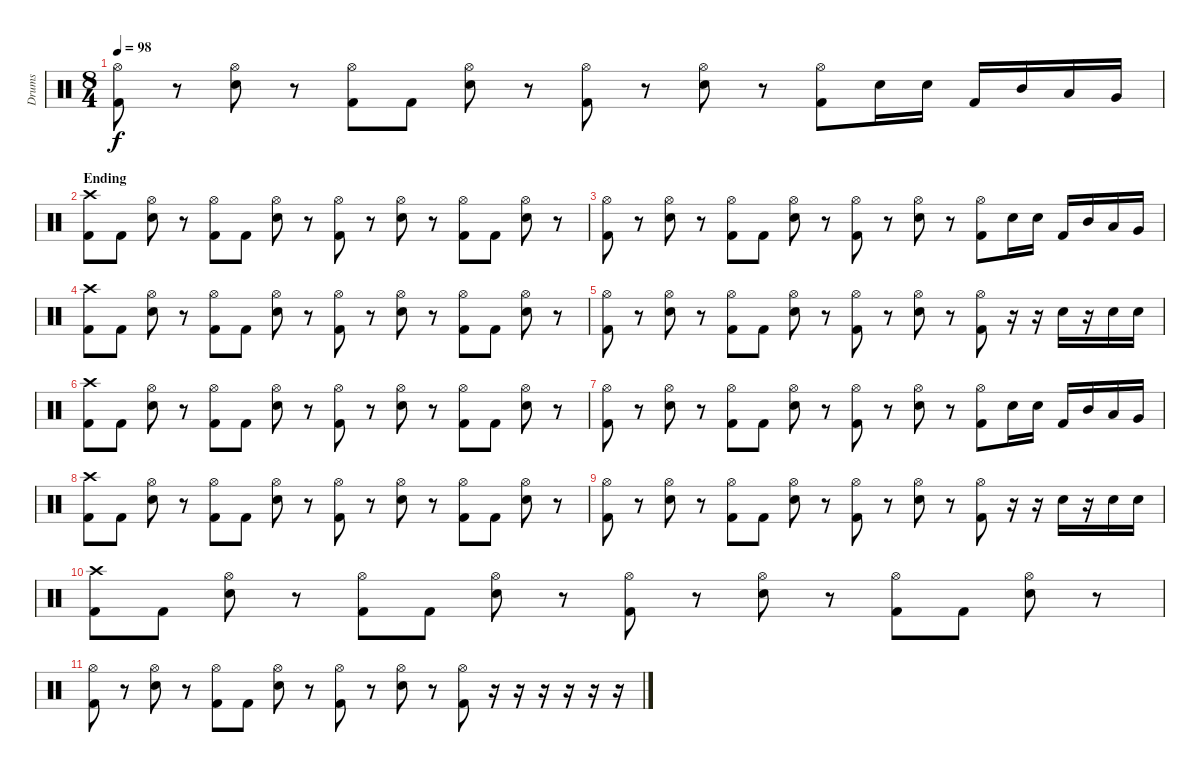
\track ("Drums" "Drums") {instrument percussion}
\staff {score}
\articulation defaults
\ts (8 4)
\tempo 98
\clef neutral
\ks c
("Hi-Hat (open)" "Kick (hit) 2").8{dy f} r.8 ("Hi-Hat (open)" "Electric Snare (hit)").8 r.8 ("Hi-Hat (open)" "Kick (hit) 2").8 "Kick (hit) 2".8 ("Hi-Hat (open)" "Electric Snare (hit)").8 r.8 ("Hi-Hat (open)" "Kick (hit) 2").8 r.8 ("Hi-Hat (open)" "Electric Snare (hit)").8 r.8 ("Hi-Hat (open)" "Kick (hit) 2").8 "Electric Snare (hit)".16 "Electric Snare (hit)".16 "Kick (hit) 2".16 "Mid Tom (hit)".16 "Low Tom (hit)".16 "Very Low Tom (hit)".16 |
\section ("" "Ending")
("Crash high (hit)" "Kick (hit) 2").8 "Kick (hit) 2".8 ("Hi-Hat (open)" "Electric Snare (hit)").8 r.8 ("Hi-Hat (open)" "Kick (hit) 2").8 "Kick (hit) 2".8 ("Hi-Hat (open)" "Electric Snare (hit)").8 r.8 ("Hi-Hat (open)" "Kick (hit) 2").8 r.8 ("Hi-Hat (open)" "Electric Snare (hit)").8 r.8 ("Hi-Hat (open)" "Kick (hit) 2").8 "Kick (hit) 2".8 ("Hi-Hat (open)" "Electric Snare (hit)").8 r.8 |
("Hi-Hat (open)" "Kick (hit) 2").8 r.8 ("Hi-Hat (open)" "Electric Snare (hit)").8 r.8 ("Hi-Hat (open)" "Kick (hit) 2").8 "Kick (hit) 2".8 ("Hi-Hat (open)" "Electric Snare (hit)").8 r.8 ("Hi-Hat (open)" "Kick (hit) 2").8 r.8 ("Hi-Hat (open)" "Electric Snare (hit)").8 r.8 ("Hi-Hat (open)" "Kick (hit) 2").8 "Electric Snare (hit)".16 "Electric Snare (hit)".16 "Kick (hit) 2".16 "Mid Tom (hit)".16 "Low Tom (hit)".16 "Very Low Tom (hit)".16 |
("Crash high (hit)" "Kick (hit) 2").8 "Kick (hit) 2".8 ("Hi-Hat (open)" "Electric Snare (hit)").8 r.8 ("Hi-Hat (open)" "Kick (hit) 2").8 "Kick (hit) 2".8 ("Hi-Hat (open)" "Electric Snare (hit)").8 r.8 ("Hi-Hat (open)" "Kick (hit) 2").8 r.8 ("Hi-Hat (open)" "Electric Snare (hit)").8 r.8 ("Hi-Hat (open)" "Kick (hit) 2").8 "Kick (hit) 2".8 ("Hi-Hat (open)" "Electric Snare (hit)").8 r.8 |
("Hi-Hat (open)" "Kick (hit) 2").8 r.8 ("Hi-Hat (open)" "Electric Snare (hit)").8 r.8 ("Hi-Hat (open)" "Kick (hit) 2").8 "Kick (hit) 2".8 ("Hi-Hat (open)" "Electric Snare (hit)").8 r.8 ("Hi-Hat (open)" "Kick (hit) 2").8 r.8 ("Hi-Hat (open)" "Electric Snare (hit)").8 r.8 ("Hi-Hat (open)" "Kick (hit) 2").8 r.16 r.16 "Electric Snare (hit)".16 r.16 "Electric Snare (hit)".16 "Electric Snare (hit)".16 |
("Crash high (hit)" "Kick (hit) 2").8{volume 11} "Kick (hit) 2".8 ("Hi-Hat (open)" "Electric Snare (hit)").8 r.8 ("Hi-Hat (open)" "Kick (hit) 2").8 "Kick (hit) 2".8 ("Hi-Hat (open)" "Electric Snare (hit)").8 r.8 ("Hi-Hat (open)" "Kick (hit) 2").8 r.8 ("Hi-Hat (open)" "Electric Snare (hit)").8 r.8 ("Hi-Hat (open)" "Kick (hit) 2").8 "Kick (hit) 2".8 ("Hi-Hat (open)" "Electric Snare (hit)").8 r.8 |
("Hi-Hat (open)" "Kick (hit) 2").8{volume 9} r.8 ("Hi-Hat (open)" "Electric Snare (hit)").8 r.8 ("Hi-Hat (open)" "Kick (hit) 2").8 "Kick (hit) 2".8 ("Hi-Hat (open)" "Electric Snare (hit)").8 r.8 ("Hi-Hat (open)" "Kick (hit) 2").8 r.8 ("Hi-Hat (open)" "Electric Snare (hit)").8 r.8 ("Hi-Hat (open)" "Kick (hit) 2").8 "Electric Snare (hit)".16 "Electric Snare (hit)".16 "Kick (hit) 2".16 "Mid Tom (hit)".16 "Low Tom (hit)".16 "Very Low Tom (hit)".16 |
("Crash high (hit)" "Kick (hit) 2").8{volume 7} "Kick (hit) 2".8 ("Hi-Hat (open)" "Electric Snare (hit)").8 r.8 ("Hi-Hat (open)" "Kick (hit) 2").8 "Kick (hit) 2".8 ("Hi-Hat (open)" "Electric Snare (hit)").8 r.8 ("Hi-Hat (open)" "Kick (hit) 2").8 r.8 ("Hi-Hat (open)" "Electric Snare (hit)").8 r.8 ("Hi-Hat (open)" "Kick (hit) 2").8 "Kick (hit) 2".8 ("Hi-Hat (open)" "Electric Snare (hit)").8 r.8 |
("Hi-Hat (open)" "Kick (hit) 2").8{volume 5} r.8 ("Hi-Hat (open)" "Electric Snare (hit)").8 r.8 ("Hi-Hat (open)" "Kick (hit) 2").8 "Kick (hit) 2".8 ("Hi-Hat (open)" "Electric Snare (hit)").8 r.8 ("Hi-Hat (open)" "Kick (hit) 2").8 r.8 ("Hi-Hat (open)" "Electric Snare (hit)").8 r.8 ("Hi-Hat (open)" "Kick (hit) 2").8 r.16 r.16 "Electric Snare (hit)".16 r.16 "Electric Snare (hit)".16 "Electric Snare (hit)".16 |
("Crash high (hit)" "Kick (hit) 2").8{volume 3} "Kick (hit) 2".8 ("Hi-Hat (open)" "Electric Snare (hit)").8 r.8 ("Hi-Hat (open)" "Kick (hit) 2").8 "Kick (hit) 2".8 ("Hi-Hat (open)" "Electric Snare (hit)").8 r.8 ("Hi-Hat (open)" "Kick (hit) 2").8 r.8 ("Hi-Hat (open)" "Electric Snare (hit)").8 r.8 ("Hi-Hat (open)" "Kick (hit) 2").8 "Kick (hit) 2".8 ("Hi-Hat (open)" "Electric Snare (hit)").8 r.8 |
("Hi-Hat (open)" "Kick (hit) 2").8{volume 1} r.8 ("Hi-Hat (open)" "Electric Snare (hit)").8 r.8 ("Hi-Hat (open)" "Kick (hit) 2").8 "Kick (hit) 2".8 ("Hi-Hat (open)" "Electric Snare (hit)").8 r.8 ("Hi-Hat (open)" "Kick (hit) 2").8 r.8 ("Hi-Hat (open)" "Electric Snare (hit)").8 r.8 ("Hi-Hat (open)" "Kick (hit) 2").8 r.16 r.16 r.16 r.16 r.16 r.16
